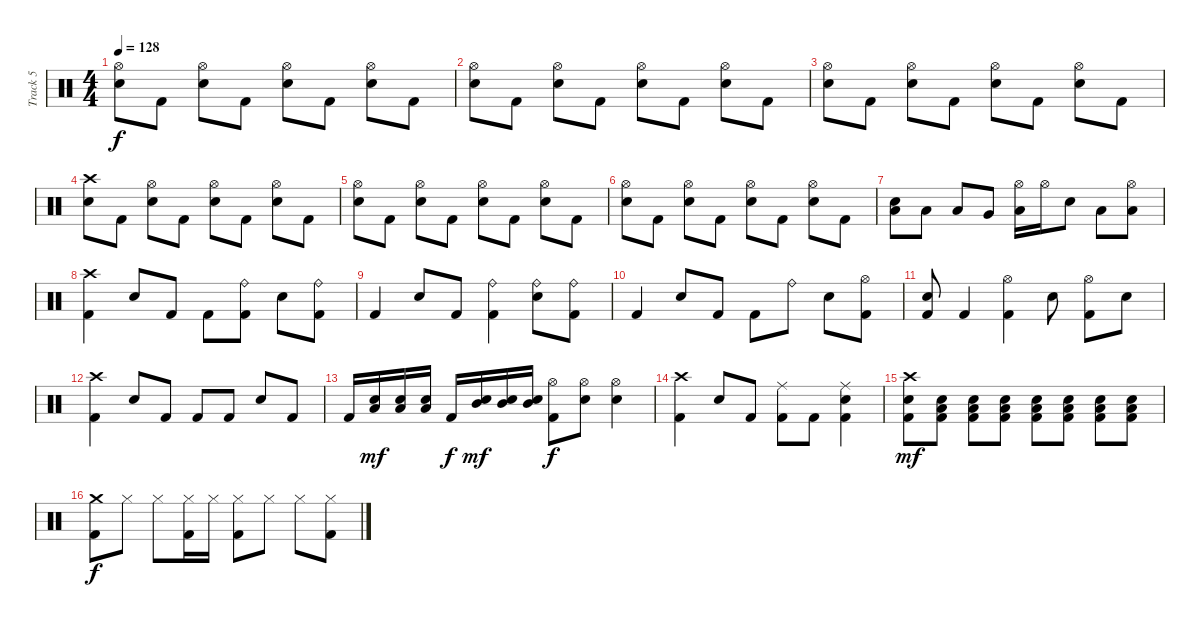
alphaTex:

\track ("Track 5" "Track 5") {instrument percussion}
\staff {score}
\articulation defaults
\ts (4 4)
\tempo 128
\clef neutral
\ks c
("Hi-Hat (open)" "Electric Snare (hit)").8{dy f} "Kick (hit) 2".8 ("Hi-Hat (open)" "Electric Snare (hit)").8 "Kick (hit) 2".8 ("Hi-Hat (open)" "Electric Snare (hit)").8 "Kick (hit) 2".8 ("Hi-Hat (open)" "Electric Snare (hit)").8 "Kick (hit) 2".8 |
("Hi-Hat (open)" "Electric Snare (hit)").8 "Kick (hit) 2".8 ("Hi-Hat (open)" "Electric Snare (hit)").8 "Kick (hit) 2".8 ("Hi-Hat (open)" "Electric Snare (hit)").8 "Kick (hit) 2".8 ("Hi-Hat (open)" "Electric Snare (hit)").8 "Kick (hit) 2".8 |
("Hi-Hat (open)" "Electric Snare (hit)").8 "Kick (hit) 2".8 ("Hi-Hat (open)" "Electric Snare (hit)").8 "Kick (hit) 2".8 ("Hi-Hat (open)" "Electric Snare (hit)").8 "Kick (hit) 2".8 ("Hi-Hat (open)" "Electric Snare (hit)").8 "Kick (hit) 2".8 |
("Crash high (hit)" "Electric Snare (hit)").8 "Kick (hit) 2".8 ("Hi-Hat (open)" "Electric Snare (hit)").8 "Kick (hit) 2".8 ("Hi-Hat (open)" "Electric Snare (hit)").8 "Kick (hit) 2".8 ("Hi-Hat (open)" "Electric Snare (hit)").8 "Kick (hit) 2".8 |
("Hi-Hat (open)" "Electric Snare (hit)").8 "Kick (hit) 2".8 ("Hi-Hat (open)" "Electric Snare (hit)").8 "Kick (hit) 2".8 ("Hi-Hat (open)" "Electric Snare (hit)").8 "Kick (hit) 2".8 ("Hi-Hat (open)" "Electric Snare (hit)").8 "Kick (hit) 2".8 |
("Hi-Hat (open)" "Electric Snare (hit)").8 "Kick (hit) 2".8 ("Hi-Hat (open)" "Electric Snare (hit)").8 "Kick (hit) 2".8 ("Hi-Hat (open)" "Electric Snare (hit)").8 "Kick (hit) 2".8 ("Hi-Hat (open)" "Electric Snare (hit)").8 "Kick (hit) 2".8 |
("Electric Snare (hit)" "Low Tom (hit)").8 "Low Tom (hit)".8 "Low Tom (hit)".8 "Very Low Tom (hit)".8 ("Hi-Hat (open)" "Low Tom (hit)").16 "Hi-Hat (open)".16 "Electric Snare (hit)".8 "Low Tom (hit)".8 ("Hi-Hat (open)" "Low Tom (hit)").8 |
("Crash high (hit)" "Kick (hit) 2").4 "Electric Snare (hit)".8 "Kick (hit) 2".8 "Kick (hit) 2".8 ("Ride (bell)" "Kick (hit) 2").8 "Electric Snare (hit)".8 ("Ride (bell)" "Kick (hit) 2").8 |
"Kick (hit) 2".4 "Electric Snare (hit)".8 "Kick (hit) 2".8 ("Ride (bell)" "Kick (hit) 2").4 ("Ride (bell)" "Electric Snare (hit)").8 ("Ride (bell)" "Kick (hit) 2").8 |
"Kick (hit) 2".4 "Electric Snare (hit)".8 "Kick (hit) 2".8 "Kick (hit) 2".8 "Ride (bell)".8 "Electric Snare (hit)".8 ("Hi-Hat (open)" "Kick (hit) 2").8 |
("Electric Snare (hit)" "Kick (hit) 2").8 "Kick (hit) 2".4 ("Hi-Hat (open)" "Kick (hit) 2").4 "Electric Snare (hit)".8 ("Hi-Hat (open)" "Kick (hit) 2").8 "Electric Snare (hit)".8 |
("Crash high (hit)" "Kick (hit) 2").4 "Electric Snare (hit)".8 "Kick (hit) 2".8 "Kick (hit) 2".8 "Kick (hit) 2".8 "Electric Snare (hit)".8 "Kick (hit) 2".8 |
"Kick (hit) 2".16 ("Electric Snare (hit)" "Low Tom (hit)").16{dy mf} ("Electric Snare (hit)" "Low Tom (hit)").16 ("Electric Snare (hit)" "Low Tom (hit)").16 "Kick (hit) 2".16{dy f} ("Electric Snare (hit)" "Mid Tom (hit)").16{dy mf} ("Electric Snare (hit)" "Mid Tom (hit)").16 ("Electric Snare (hit)" "Mid Tom (hit)").16 ("Hi-Hat (open)" "Kick (hit) 2").8{dy f} ("Hi-Hat (open)" "Electric Snare (hit)").8 ("Hi-Hat (open)" "Electric Snare (hit)").4 |
("Crash high (hit)" "Kick (hit) 2").4 "Electric Snare (hit)".8 "Kick (hit) 2".8 ("Ride (middle)" "Kick (hit) 2").8 "Kick (hit) 2".8 ("Ride (middle)" "Electric Snare (hit)" "Kick (hit) 2").4 |
("Crash high (hit)" "Electric Snare (hit)" "Kick (hit) 2").8{dy mf} ("Electric Snare (hit)" "Low Tom (hit)" "Kick (hit) 2").8 ("Electric Snare (hit)" "Low Tom (hit)" "Kick (hit) 2").8 ("Electric Snare (hit)" "Low Tom (hit)" "Kick (hit) 2").8 ("Electric Snare (hit)" "Low Tom (hit)" "Kick (hit) 2").8 ("Electric Snare (hit)" "Low Tom (hit)" "Kick (hit) 2").8 ("Electric Snare (hit)" "Low Tom (hit)" "Kick (hit) 2").8 ("Electric Snare (hit)" "Low Tom (hit)" "Kick (hit) 2").8 |
("Crash medium (hit)" "Kick (hit) 2").8{dy f} "Hi-Hat (closed)".8 "Hi-Hat (closed)".8 ("Hi-Hat (closed)" "Kick (hit) 2").16 "Hi-Hat (closed)".16 ("Hi-Hat (closed)" "Kick (hit) 2").8 "Hi-Hat (closed)".8 "Hi-Hat (closed)".8 ("Hi-Hat (closed)" "Kick (hit) 2").8
